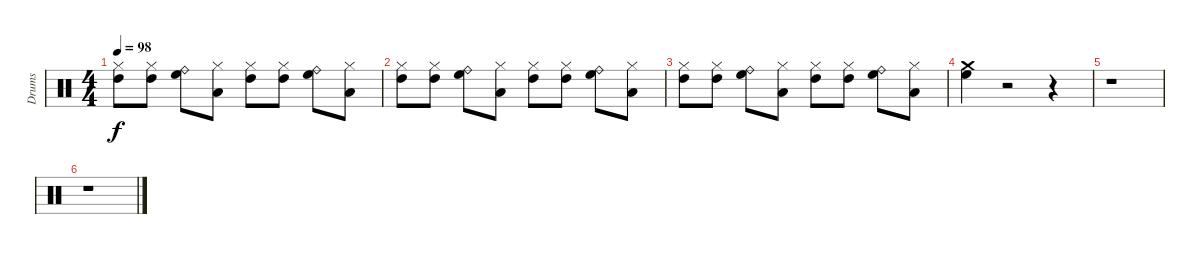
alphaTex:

\track ("Drums" "Drums") {instrument percussion}
\staff {score}
\articulation defaults
\ts (4 4)
\tempo 98
\clef neutral
\ks c
("Hi-Hat (closed)" "High Tom (hit)").8{dy f} ("Hi-Hat (closed)" "High Tom (hit)").8 ("Ride (bell)" "High Floor Tom (hit)").8 ("Hi-Hat (closed)" "Low Tom (hit)").8 ("Hi-Hat (closed)" "High Tom (hit)").8 ("Hi-Hat (closed)" "High Tom (hit)").8 ("Ride (bell)" "High Floor Tom (hit)").8 ("Hi-Hat (closed)" "Low Tom (hit)").8 |
("Hi-Hat (closed)" "High Tom (hit)").8 ("Hi-Hat (closed)" "High Tom (hit)").8 ("Ride (bell)" "High Floor Tom (hit)").8 ("Hi-Hat (closed)" "Low Tom (hit)").8 ("Hi-Hat (closed)" "High Tom (hit)").8 ("Hi-Hat (closed)" "High Tom (hit)").8 ("Ride (bell)" "High Floor Tom (hit)").8 ("Hi-Hat (closed)" "Low Tom (hit)").8 |
("Hi-Hat (closed)" "High Tom (hit)").8 ("Hi-Hat (closed)" "High Tom (hit)").8 ("Ride (bell)" "High Floor Tom (hit)").8 ("Hi-Hat (closed)" "Low Tom (hit)").8 ("Hi-Hat (closed)" "High Tom (hit)").8 ("Hi-Hat (closed)" "High Tom (hit)").8 ("Ride (bell)" "High Floor Tom (hit)").8 ("Hi-Hat (closed)" "Low Tom (hit)").8 |
("Crash medium (hit)" "High Floor Tom (hit)").4 r.2 r.4 |
r.1 |
r.1
